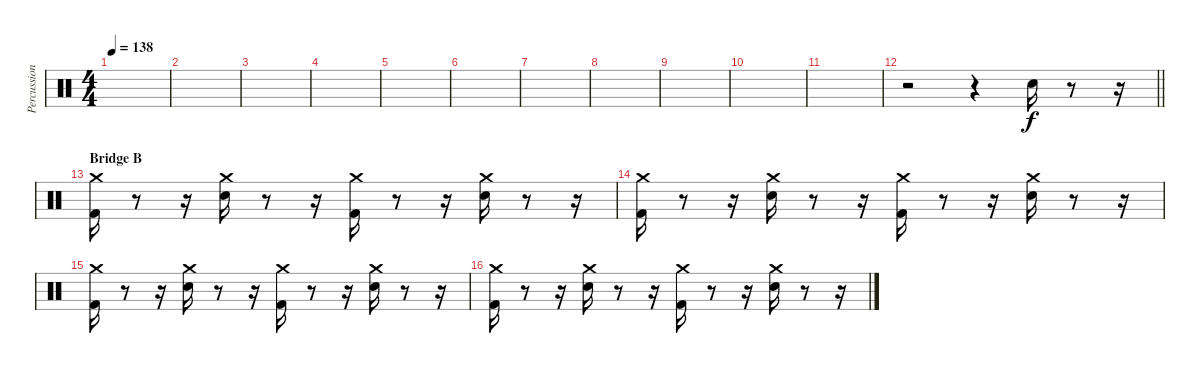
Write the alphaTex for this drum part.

\track ("Percussion" "Percussion") {instrument percussion}
\staff {score}
\articulation defaults
\ts (4 4)
\tempo 138
\clef neutral
\ks c
|
|
|
|
|
|
|
|
|
|
|
\barLineRight lightlight
r.2 r.4 "Electric Snare (hit)".16 r.8 r.16 |
\section ("" "Bridge B")
("Kick (hit) 2" "Crash medium (hit)").16 r.8 r.16 ("Snare (hit) 2" "Crash medium (hit)").16 r.8 r.16 ("Kick (hit) 2" "Crash medium (hit)").16 r.8 r.16 ("Snare (hit) 2" "Crash medium (hit)").16 r.8 r.16 |
("Kick (hit) 2" "Crash medium (hit)").16 r.8 r.16 ("Snare (hit) 2" "Crash medium (hit)").16 r.8 r.16 ("Kick (hit) 2" "Crash medium (hit)").16 r.8 r.16 ("Snare (hit) 2" "Crash medium (hit)").16 r.8 r.16 |
("Kick (hit) 2" "Crash medium (hit)").16 r.8 r.16 ("Snare (hit) 2" "Crash medium (hit)").16 r.8 r.16 ("Kick (hit) 2" "Crash medium (hit)").16 r.8 r.16 ("Snare (hit) 2" "Crash medium (hit)").16 r.8 r.16 |
("Kick (hit) 2" "Crash medium (hit)").16 r.8 r.16 ("Snare (hit) 2" "Crash medium (hit)").16 r.8 r.16 ("Kick (hit) 2" "Crash medium (hit)").16 r.8 r.16 ("Snare (hit) 2" "Crash medium (hit)").16 r.8 r.16
